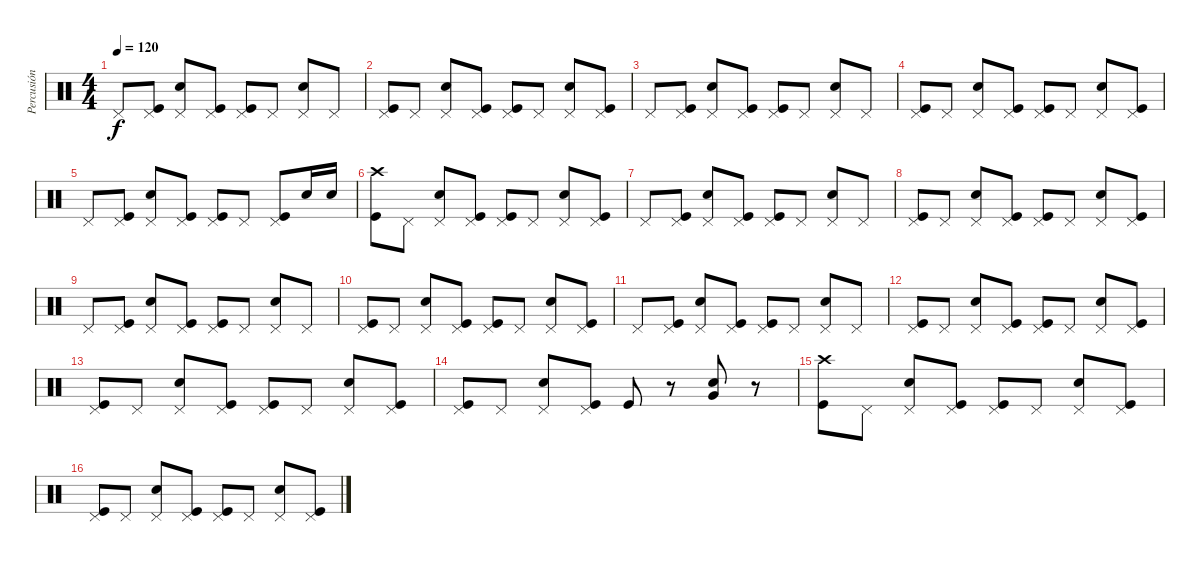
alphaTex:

\track ("Percusión" "Percusión") {instrument percussion}
\staff {score}
\articulation defaults
\ts (4 4)
\tempo 120
\clef neutral
\ks c "Pedal Hi-Hat (hit)".8{dy f}
("Pedal Hi-Hat (hit)" "Kick (hit)").8 ("Pedal Hi-Hat (hit)" "Electric Snare (hit)").8 ("Pedal Hi-Hat (hit)" "Kick (hit)").8 ("Pedal Hi-Hat (hit)" "Kick (hit)").8 "Pedal Hi-Hat (hit)".8 ("Pedal Hi-Hat (hit)" "Electric Snare (hit)").8 "Pedal Hi-Hat (hit)".8 |
("Pedal Hi-Hat (hit)" "Kick (hit)").8 "Pedal Hi-Hat (hit)".8 ("Pedal Hi-Hat (hit)" "Electric Snare (hit)").8 ("Pedal Hi-Hat (hit)" "Kick (hit)").8 ("Pedal Hi-Hat (hit)" "Kick (hit)").8 "Pedal Hi-Hat (hit)".8 ("Pedal Hi-Hat (hit)" "Electric Snare (hit)").8 ("Pedal Hi-Hat (hit)" "Kick (hit)").8 |
"Pedal Hi-Hat (hit)".8 ("Pedal Hi-Hat (hit)" "Kick (hit)").8 ("Pedal Hi-Hat (hit)" "Electric Snare (hit)").8 ("Pedal Hi-Hat (hit)" "Kick (hit)").8 ("Pedal Hi-Hat (hit)" "Kick (hit)").8 "Pedal Hi-Hat (hit)".8 ("Pedal Hi-Hat (hit)" "Electric Snare (hit)").8 "Pedal Hi-Hat (hit)".8 |
("Pedal Hi-Hat (hit)" "Kick (hit)").8 "Pedal Hi-Hat (hit)".8 ("Pedal Hi-Hat (hit)" "Electric Snare (hit)").8 ("Pedal Hi-Hat (hit)" "Kick (hit)").8 ("Pedal Hi-Hat (hit)" "Kick (hit)").8 "Pedal Hi-Hat (hit)".8 ("Pedal Hi-Hat (hit)" "Electric Snare (hit)").8 ("Pedal Hi-Hat (hit)" "Kick (hit)").8 |
"Pedal Hi-Hat (hit)".8 ("Pedal Hi-Hat (hit)" "Kick (hit)").8 ("Pedal Hi-Hat (hit)" "Electric Snare (hit)").8 ("Pedal Hi-Hat (hit)" "Kick (hit)").8 ("Pedal Hi-Hat (hit)" "Kick (hit)").8 "Pedal Hi-Hat (hit)".8 ("Pedal Hi-Hat (hit)" "Kick (hit)").8 "Electric Snare (hit)".16 "Electric Snare (hit)".16 |
("Crash high (hit)" "Kick (hit)").8 "Pedal Hi-Hat (hit)".8 ("Pedal Hi-Hat (hit)" "Electric Snare (hit)").8 ("Pedal Hi-Hat (hit)" "Kick (hit)").8 ("Pedal Hi-Hat (hit)" "Kick (hit)").8 "Pedal Hi-Hat (hit)".8 ("Pedal Hi-Hat (hit)" "Electric Snare (hit)").8 ("Pedal Hi-Hat (hit)" "Kick (hit)").8 |
"Pedal Hi-Hat (hit)".8 ("Pedal Hi-Hat (hit)" "Kick (hit)").8 ("Pedal Hi-Hat (hit)" "Electric Snare (hit)").8 ("Pedal Hi-Hat (hit)" "Kick (hit)").8 ("Pedal Hi-Hat (hit)" "Kick (hit)").8 "Pedal Hi-Hat (hit)".8 ("Pedal Hi-Hat (hit)" "Electric Snare (hit)").8 "Pedal Hi-Hat (hit)".8 |
("Pedal Hi-Hat (hit)" "Kick (hit)").8 "Pedal Hi-Hat (hit)".8 ("Pedal Hi-Hat (hit)" "Electric Snare (hit)").8 ("Pedal Hi-Hat (hit)" "Kick (hit)").8 ("Pedal Hi-Hat (hit)" "Kick (hit)").8 "Pedal Hi-Hat (hit)".8 ("Pedal Hi-Hat (hit)" "Electric Snare (hit)").8 ("Pedal Hi-Hat (hit)" "Kick (hit)").8 |
"Pedal Hi-Hat (hit)".8 ("Pedal Hi-Hat (hit)" "Kick (hit)").8 ("Pedal Hi-Hat (hit)" "Electric Snare (hit)").8 ("Pedal Hi-Hat (hit)" "Kick (hit)").8 ("Pedal Hi-Hat (hit)" "Kick (hit)").8 "Pedal Hi-Hat (hit)".8 ("Pedal Hi-Hat (hit)" "Electric Snare (hit)").8 "Pedal Hi-Hat (hit)".8 |
("Pedal Hi-Hat (hit)" "Kick (hit)").8 "Pedal Hi-Hat (hit)".8 ("Pedal Hi-Hat (hit)" "Electric Snare (hit)").8 ("Pedal Hi-Hat (hit)" "Kick (hit)").8 ("Pedal Hi-Hat (hit)" "Kick (hit)").8 "Pedal Hi-Hat (hit)".8 ("Pedal Hi-Hat (hit)" "Electric Snare (hit)").8 ("Pedal Hi-Hat (hit)" "Kick (hit)").8 |
"Pedal Hi-Hat (hit)".8 ("Pedal Hi-Hat (hit)" "Kick (hit)").8 ("Pedal Hi-Hat (hit)" "Electric Snare (hit)").8 ("Pedal Hi-Hat (hit)" "Kick (hit)").8 ("Pedal Hi-Hat (hit)" "Kick (hit)").8 "Pedal Hi-Hat (hit)".8 ("Pedal Hi-Hat (hit)" "Electric Snare (hit)").8 "Pedal Hi-Hat (hit)".8 |
("Pedal Hi-Hat (hit)" "Kick (hit)").8 "Pedal Hi-Hat (hit)".8 ("Pedal Hi-Hat (hit)" "Electric Snare (hit)").8 ("Pedal Hi-Hat (hit)" "Kick (hit)").8 ("Pedal Hi-Hat (hit)" "Kick (hit)").8 "Pedal Hi-Hat (hit)".8 ("Pedal Hi-Hat (hit)" "Electric Snare (hit)").8 ("Pedal Hi-Hat (hit)" "Kick (hit)").8 |
("Pedal Hi-Hat (hit)" "Kick (hit)").8 "Pedal Hi-Hat (hit)".8 ("Pedal Hi-Hat (hit)" "Electric Snare (hit)").8 ("Pedal Hi-Hat (hit)" "Kick (hit)").8 ("Pedal Hi-Hat (hit)" "Kick (hit)").8 "Pedal Hi-Hat (hit)".8 ("Pedal Hi-Hat (hit)" "Electric Snare (hit)").8 ("Pedal Hi-Hat (hit)" "Kick (hit)").8 |
("Pedal Hi-Hat (hit)" "Kick (hit)").8 "Pedal Hi-Hat (hit)".8 ("Pedal Hi-Hat (hit)" "Electric Snare (hit)").8 ("Pedal Hi-Hat (hit)" "Kick (hit)").8 "Kick (hit)".8 r.8 ("Very Low Tom (hit)" "Electric Snare (hit)").8 r.8 |
("Crash high (hit)" "Kick (hit)").8 "Pedal Hi-Hat (hit)".8 ("Pedal Hi-Hat (hit)" "Electric Snare (hit)").8 ("Pedal Hi-Hat (hit)" "Kick (hit)").8 ("Pedal Hi-Hat (hit)" "Kick (hit)").8 "Pedal Hi-Hat (hit)".8 ("Pedal Hi-Hat (hit)" "Electric Snare (hit)").8 ("Pedal Hi-Hat (hit)" "Kick (hit)").8 |
("Pedal Hi-Hat (hit)" "Kick (hit)").8 "Pedal Hi-Hat (hit)".8 ("Pedal Hi-Hat (hit)" "Electric Snare (hit)").8 ("Pedal Hi-Hat (hit)" "Kick (hit)").8 ("Pedal Hi-Hat (hit)" "Kick (hit)").8 "Pedal Hi-Hat (hit)".8 ("Pedal Hi-Hat (hit)" "Electric Snare (hit)").8 ("Pedal Hi-Hat (hit)" "Kick (hit)").8
